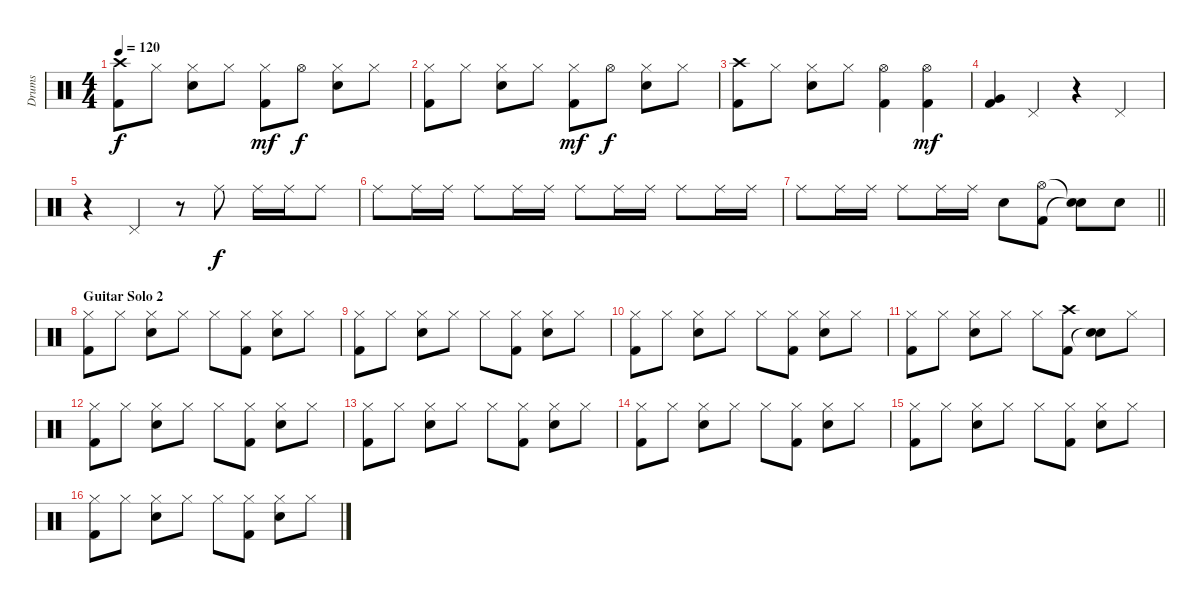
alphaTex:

\track ("Drums" "Drums") {instrument percussion}
\staff {score}
\articulation defaults
\ts (4 4)
\tempo 120
\clef neutral
\ks c
("Crash high (hit)" "Kick (hit) 2").8{dy f} "Hi-Hat (closed)".8 ("Hi-Hat (closed)" "Snare (hit) 2").8 "Hi-Hat (closed)".8 ("Hi-Hat (closed)" "Kick (hit) 2").8{dy mf} "Hi-Hat (open)".8{dy f} ("Hi-Hat (closed)" "Snare (hit) 2").8 "Hi-Hat (closed)".8 |
("Hi-Hat (closed)" "Kick (hit) 2").8 "Hi-Hat (closed)".8 ("Hi-Hat (closed)" "Snare (hit) 2").8 "Hi-Hat (closed)".8 ("Hi-Hat (closed)" "Kick (hit) 2").8{dy mf} "Hi-Hat (open)".8{dy f} ("Hi-Hat (closed)" "Snare (hit) 2").8 "Hi-Hat (closed)".8 |
("Crash high (hit)" "Kick (hit) 2").8 "Hi-Hat (closed)".8 ("Hi-Hat (closed)" "Snare (hit) 2").8 "Hi-Hat (closed)".8 ("Hi-Hat (open)" "Kick (hit) 2").4 ("Hi-Hat (open)" "Kick (hit) 2").4{dy mf} |
("Very Low Tom (hit)" "Kick (hit) 2").4 "Pedal Hi-Hat (hit)".4 r.4 "Pedal Hi-Hat (hit)".4 |
r.4 "Pedal Hi-Hat (hit)".4 r.8 "Ride (middle)".8{dy f} "Ride (middle)".16 "Ride (middle)".16 "Ride (middle)".8 |
"Ride (middle)".8 "Ride (middle)".16 "Ride (middle)".16 "Ride (middle)".8 "Ride (middle)".16 "Ride (middle)".16 "Ride (middle)".8 "Ride (middle)".16 "Ride (middle)".16 "Ride (middle)".8 "Ride (middle)".16 "Ride (middle)".16 |
\barLineRight lightlight "Ride (middle)".8 "Ride (middle)".16 "Ride (middle)".16 "Ride (middle)".8 "Ride (middle)".16 "Ride (middle)".16 "Snare (hit) 2".8
("Hi-Hat (open)" "Kick (hit) 2").8 ("Snare (hit)"{t} "Snare (hit)"{t}).8 "Snare (hit) 2".8 |
\section ("" "Guitar Solo 2")
("Hi-Hat (closed)" "Kick (hit) 2").8 "Hi-Hat (closed)".8 ("Hi-Hat (closed)" "Snare (hit) 2").8 "Hi-Hat (closed)".8 "Hi-Hat (closed)".8 ("Hi-Hat (closed)" "Kick (hit) 2").8 ("Hi-Hat (closed)" "Snare (hit) 2").8 "Hi-Hat (closed)".8 |
("Hi-Hat (closed)" "Kick (hit) 2").8 "Hi-Hat (closed)".8 ("Hi-Hat (closed)" "Snare (hit) 2").8 "Hi-Hat (closed)".8 "Hi-Hat (closed)".8 ("Hi-Hat (closed)" "Kick (hit) 2").8 ("Hi-Hat (closed)" "Snare (hit) 2").8 "Hi-Hat (closed)".8 |
("Hi-Hat (closed)" "Kick (hit) 2").8 "Hi-Hat (closed)".8 ("Hi-Hat (closed)" "Snare (hit) 2").8 "Hi-Hat (closed)".8 "Hi-Hat (closed)".8 ("Hi-Hat (closed)" "Kick (hit) 2").8 ("Hi-Hat (closed)" "Snare (hit) 2").8 "Hi-Hat (closed)".8 |
("Hi-Hat (closed)" "Kick (hit) 2").8 "Hi-Hat (closed)".8 ("Hi-Hat (closed)" "Snare (hit) 2").8 "Hi-Hat (closed)".8 "Hi-Hat (closed)".8 ("Crash high (hit)" "Kick (hit) 2").8 ("Snare (hit) 2" "Snare (hit)"{t}).8 "Hi-Hat (closed)".8 |
("Hi-Hat (closed)" "Kick (hit) 2").8 "Hi-Hat (closed)".8 ("Hi-Hat (closed)" "Snare (hit) 2").8 "Hi-Hat (closed)".8 "Hi-Hat (closed)".8 ("Hi-Hat (closed)" "Kick (hit) 2").8 ("Hi-Hat (closed)" "Snare (hit) 2").8 "Hi-Hat (closed)".8 |
("Hi-Hat (closed)" "Kick (hit) 2").8 "Hi-Hat (closed)".8 ("Hi-Hat (closed)" "Snare (hit) 2").8 "Hi-Hat (closed)".8 "Hi-Hat (closed)".8 ("Hi-Hat (closed)" "Kick (hit) 2").8 ("Hi-Hat (closed)" "Snare (hit) 2").8 "Hi-Hat (closed)".8 |
("Hi-Hat (closed)" "Kick (hit) 2").8 "Hi-Hat (closed)".8 ("Hi-Hat (closed)" "Snare (hit) 2").8 "Hi-Hat (closed)".8 "Hi-Hat (closed)".8 ("Hi-Hat (closed)" "Kick (hit) 2").8 ("Hi-Hat (closed)" "Snare (hit) 2").8 "Hi-Hat (closed)".8 |
("Hi-Hat (closed)" "Kick (hit) 2").8 "Hi-Hat (closed)".8 ("Hi-Hat (closed)" "Snare (hit) 2").8 "Hi-Hat (closed)".8 "Hi-Hat (closed)".8 ("Hi-Hat (closed)" "Kick (hit) 2").8 ("Hi-Hat (closed)" "Snare (hit) 2").8 "Hi-Hat (closed)".8 |
("Hi-Hat (closed)" "Kick (hit) 2").8 "Hi-Hat (closed)".8 ("Hi-Hat (closed)" "Snare (hit) 2").8 "Hi-Hat (closed)".8 "Hi-Hat (closed)".8 ("Hi-Hat (closed)" "Kick (hit) 2").8 ("Hi-Hat (closed)" "Snare (hit) 2").8 "Hi-Hat (closed)".8
